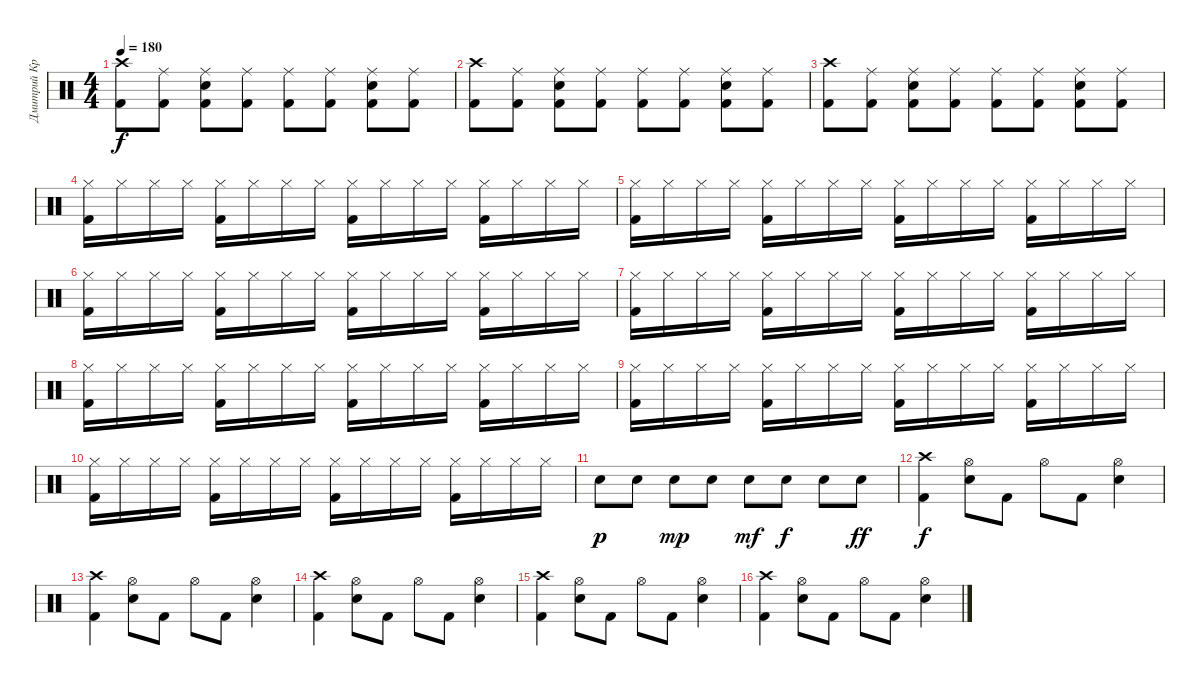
\track ("Дмитрий Кривенков" "Дмитрий Кр") {instrument percussion}
\staff {score}
\articulation defaults
\ts (4 4)
\tempo 180
\clef neutral
\ks c
("Crash high (hit)" "Kick (hit) 2").8{dy f} ("Ride (middle)" "Kick (hit) 2").8 ("Kick (hit) 2" "Electric Snare (hit)" "Ride (middle)").8 ("Ride (middle)" "Kick (hit) 2").8 ("Ride (middle)" "Kick (hit) 2").8 ("Kick (hit) 2" "Ride (middle)").8 ("Kick (hit) 2" "Electric Snare (hit)" "Ride (middle)").8 ("Ride (middle)" "Kick (hit) 2").8 |
("Crash high (hit)" "Kick (hit) 2").8 ("Ride (middle)" "Kick (hit) 2").8 ("Kick (hit) 2" "Electric Snare (hit)" "Ride (middle)").8 ("Ride (middle)" "Kick (hit) 2").8 ("Ride (middle)" "Kick (hit) 2").8 ("Kick (hit) 2" "Ride (middle)").8 ("Kick (hit) 2" "Electric Snare (hit)" "Ride (middle)").8 ("Ride (middle)" "Kick (hit) 2").8 |
("Crash high (hit)" "Kick (hit) 2").8 ("Ride (middle)" "Kick (hit) 2").8 ("Kick (hit) 2" "Electric Snare (hit)" "Ride (middle)").8 ("Ride (middle)" "Kick (hit) 2").8 ("Ride (middle)" "Kick (hit) 2").8 ("Kick (hit) 2" "Ride (middle)").8 ("Kick (hit) 2" "Electric Snare (hit)" "Ride (middle)").8 ("Ride (middle)" "Kick (hit) 2").8 |
("Hi-Hat (closed)" "Kick (hit) 2").16 "Hi-Hat (closed)".16 "Hi-Hat (closed)".16 "Hi-Hat (closed)".16 ("Hi-Hat (closed)" "Kick (hit) 2").16 "Hi-Hat (closed)".16 "Hi-Hat (closed)".16 "Hi-Hat (closed)".16 ("Kick (hit) 2" "Hi-Hat (closed)").16 "Hi-Hat (closed)".16 "Hi-Hat (closed)".16 "Hi-Hat (closed)".16 ("Kick (hit) 2" "Hi-Hat (closed)").16 "Hi-Hat (closed)".16 "Hi-Hat (closed)".16 "Hi-Hat (closed)".16 |
("Hi-Hat (closed)" "Kick (hit) 2").16 "Hi-Hat (closed)".16 "Hi-Hat (closed)".16 "Hi-Hat (closed)".16 ("Hi-Hat (closed)" "Kick (hit) 2").16 "Hi-Hat (closed)".16 "Hi-Hat (closed)".16 "Hi-Hat (closed)".16 ("Kick (hit) 2" "Hi-Hat (closed)").16 "Hi-Hat (closed)".16 "Hi-Hat (closed)".16 "Hi-Hat (closed)".16 ("Kick (hit) 2" "Hi-Hat (closed)").16 "Hi-Hat (closed)".16 "Hi-Hat (closed)".16 "Hi-Hat (closed)".16 |
("Hi-Hat (closed)" "Kick (hit) 2").16 "Hi-Hat (closed)".16 "Hi-Hat (closed)".16 "Hi-Hat (closed)".16 ("Hi-Hat (closed)" "Kick (hit) 2").16 "Hi-Hat (closed)".16 "Hi-Hat (closed)".16 "Hi-Hat (closed)".16 ("Kick (hit) 2" "Hi-Hat (closed)").16 "Hi-Hat (closed)".16 "Hi-Hat (closed)".16 "Hi-Hat (closed)".16 ("Kick (hit) 2" "Hi-Hat (closed)").16 "Hi-Hat (closed)".16 "Hi-Hat (closed)".16 "Hi-Hat (closed)".16 |
("Hi-Hat (closed)" "Kick (hit) 2").16 "Hi-Hat (closed)".16 "Hi-Hat (closed)".16 "Hi-Hat (closed)".16 ("Hi-Hat (closed)" "Kick (hit) 2").16 "Hi-Hat (closed)".16 "Hi-Hat (closed)".16 "Hi-Hat (closed)".16 ("Kick (hit) 2" "Hi-Hat (closed)").16 "Hi-Hat (closed)".16 "Hi-Hat (closed)".16 "Hi-Hat (closed)".16 ("Kick (hit) 2" "Hi-Hat (closed)").16 "Hi-Hat (closed)".16 "Hi-Hat (closed)".16 "Hi-Hat (closed)".16 |
("Hi-Hat (closed)" "Kick (hit) 2").16 "Hi-Hat (closed)".16 "Hi-Hat (closed)".16 "Hi-Hat (closed)".16 ("Hi-Hat (closed)" "Kick (hit) 2").16 "Hi-Hat (closed)".16 "Hi-Hat (closed)".16 "Hi-Hat (closed)".16 ("Kick (hit) 2" "Hi-Hat (closed)").16 "Hi-Hat (closed)".16 "Hi-Hat (closed)".16 "Hi-Hat (closed)".16 ("Kick (hit) 2" "Hi-Hat (closed)").16 "Hi-Hat (closed)".16 "Hi-Hat (closed)".16 "Hi-Hat (closed)".16 |
("Hi-Hat (closed)" "Kick (hit) 2").16 "Hi-Hat (closed)".16 "Hi-Hat (closed)".16 "Hi-Hat (closed)".16 ("Hi-Hat (closed)" "Kick (hit) 2").16 "Hi-Hat (closed)".16 "Hi-Hat (closed)".16 "Hi-Hat (closed)".16 ("Kick (hit) 2" "Hi-Hat (closed)").16 "Hi-Hat (closed)".16 "Hi-Hat (closed)".16 "Hi-Hat (closed)".16 ("Kick (hit) 2" "Hi-Hat (closed)").16 "Hi-Hat (closed)".16 "Hi-Hat (closed)".16 "Hi-Hat (closed)".16 |
("Hi-Hat (closed)" "Kick (hit) 2").16 "Hi-Hat (closed)".16 "Hi-Hat (closed)".16 "Hi-Hat (closed)".16 ("Hi-Hat (closed)" "Kick (hit) 2").16 "Hi-Hat (closed)".16 "Hi-Hat (closed)".16 "Hi-Hat (closed)".16 ("Kick (hit) 2" "Hi-Hat (closed)").16 "Hi-Hat (closed)".16 "Hi-Hat (closed)".16 "Hi-Hat (closed)".16 ("Kick (hit) 2" "Hi-Hat (closed)").16 "Hi-Hat (closed)".16 "Hi-Hat (closed)".16 "Hi-Hat (closed)".16 |
"Electric Snare (hit)".8{dy p} "Electric Snare (hit)".8 "Electric Snare (hit)".8{dy mp} "Electric Snare (hit)".8 "Electric Snare (hit)".8{dy mf} "Electric Snare (hit)".8{dy f} "Electric Snare (hit)".8 "Electric Snare (hit)".8{dy ff} |
("Crash high (hit)" "Kick (hit) 2").4{dy f} ("Electric Snare (hit)" "Hi-Hat (open)").8 "Kick (hit) 2".8 "Hi-Hat (open)".8 "Kick (hit) 2".8 ("Hi-Hat (open)" "Electric Snare (hit)").4 |
("Kick (hit) 2" "Crash high (hit)").4 ("Electric Snare (hit)" "Hi-Hat (open)").8 "Kick (hit) 2".8 "Hi-Hat (open)".8 "Kick (hit) 2".8 ("Electric Snare (hit)" "Hi-Hat (open)").4 |
("Kick (hit) 2" "Crash high (hit)").4 ("Electric Snare (hit)" "Hi-Hat (open)").8 "Kick (hit) 2".8 "Hi-Hat (open)".8 "Kick (hit) 2".8 ("Electric Snare (hit)" "Hi-Hat (open)").4 |
("Kick (hit) 2" "Crash high (hit)").4 ("Electric Snare (hit)" "Hi-Hat (open)").8 "Kick (hit) 2".8 "Hi-Hat (open)".8 "Kick (hit) 2".8 ("Electric Snare (hit)" "Hi-Hat (open)").4 |
("Kick (hit) 2" "Crash high (hit)").4 ("Electric Snare (hit)" "Hi-Hat (open)").8 "Kick (hit) 2".8 "Hi-Hat (open)".8 "Kick (hit) 2".8 ("Electric Snare (hit)" "Hi-Hat (open)").4
